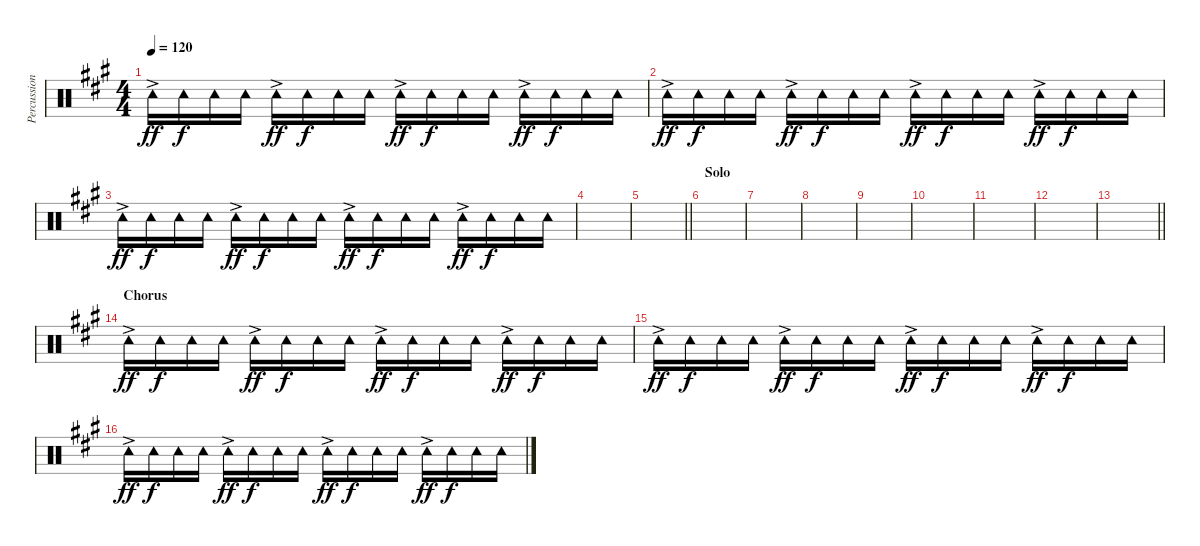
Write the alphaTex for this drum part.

\track ("Percussion" "Percussion") {instrument percussion}
\staff {score}
\articulation defaults
\ts (4 4)
\tempo 120
\clef neutral
\ks a "Tambourine (hit)"{ac}.16{dy ff} "Tambourine (hit)".16{dy f} "Tambourine (hit)".16 "Tambourine (hit)".16 "Tambourine (hit)"{ac}.16{dy ff} "Tambourine (hit)".16{dy f} "Tambourine (hit)".16 "Tambourine (hit)".16 "Tambourine (hit)"{ac}.16{dy ff} "Tambourine (hit)".16{dy f} "Tambourine (hit)".16 "Tambourine (hit)".16 "Tambourine (hit)"{ac}.16{dy ff} "Tambourine (hit)".16{dy f} "Tambourine (hit)".16 "Tambourine (hit)".16
|
"Tambourine (hit)"{ac}.16{dy ff} "Tambourine (hit)".16{dy f} "Tambourine (hit)".16 "Tambourine (hit)".16 "Tambourine (hit)"{ac}.16{dy ff} "Tambourine (hit)".16{dy f} "Tambourine (hit)".16 "Tambourine (hit)".16 "Tambourine (hit)"{ac}.16{dy ff} "Tambourine (hit)".16{dy f} "Tambourine (hit)".16 "Tambourine (hit)".16 "Tambourine (hit)"{ac}.16{dy ff} "Tambourine (hit)".16{dy f} "Tambourine (hit)".16 "Tambourine (hit)".16 |
"Tambourine (hit)"{ac}.16{dy ff} "Tambourine (hit)".16{dy f} "Tambourine (hit)".16 "Tambourine (hit)".16 "Tambourine (hit)"{ac}.16{dy ff} "Tambourine (hit)".16{dy f} "Tambourine (hit)".16 "Tambourine (hit)".16 "Tambourine (hit)"{ac}.16{dy ff} "Tambourine (hit)".16{dy f} "Tambourine (hit)".16 "Tambourine (hit)".16 "Tambourine (hit)"{ac}.16{dy ff} "Tambourine (hit)".16{dy f} "Tambourine (hit)".16 "Tambourine (hit)".16 |
|
\barLineRight lightlight
|
\section ("" "Solo")
|
|
|
|
|
|
|
\barLineRight lightlight
|
\section ("" "Chorus")
"Tambourine (hit)"{ac}.16{dy ff} "Tambourine (hit)".16{dy f} "Tambourine (hit)".16 "Tambourine (hit)".16 "Tambourine (hit)"{ac}.16{dy ff} "Tambourine (hit)".16{dy f} "Tambourine (hit)".16 "Tambourine (hit)".16 "Tambourine (hit)"{ac}.16{dy ff} "Tambourine (hit)".16{dy f} "Tambourine (hit)".16 "Tambourine (hit)".16 "Tambourine (hit)"{ac}.16{dy ff} "Tambourine (hit)".16{dy f} "Tambourine (hit)".16 "Tambourine (hit)".16 |
"Tambourine (hit)"{ac}.16{dy ff} "Tambourine (hit)".16{dy f} "Tambourine (hit)".16 "Tambourine (hit)".16 "Tambourine (hit)"{ac}.16{dy ff} "Tambourine (hit)".16{dy f} "Tambourine (hit)".16 "Tambourine (hit)".16 "Tambourine (hit)"{ac}.16{dy ff} "Tambourine (hit)".16{dy f} "Tambourine (hit)".16 "Tambourine (hit)".16 "Tambourine (hit)"{ac}.16{dy ff} "Tambourine (hit)".16{dy f} "Tambourine (hit)".16 "Tambourine (hit)".16 |
"Tambourine (hit)"{ac}.16{dy ff} "Tambourine (hit)".16{dy f} "Tambourine (hit)".16 "Tambourine (hit)".16 "Tambourine (hit)"{ac}.16{dy ff} "Tambourine (hit)".16{dy f} "Tambourine (hit)".16 "Tambourine (hit)".16 "Tambourine (hit)"{ac}.16{dy ff} "Tambourine (hit)".16{dy f} "Tambourine (hit)".16 "Tambourine (hit)".16 "Tambourine (hit)"{ac}.16{dy ff} "Tambourine (hit)".16{dy f} "Tambourine (hit)".16 "Tambourine (hit)".16
